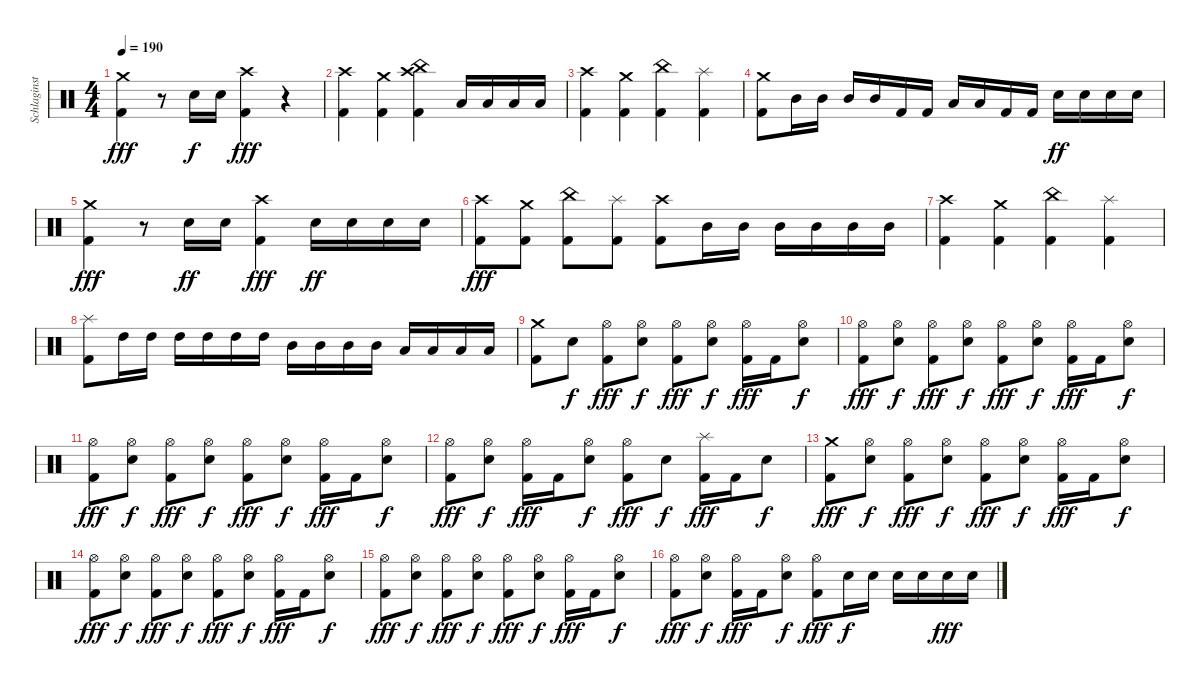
\track ("Schlaginstrumente - Auswahl" "Schlaginst") {instrument percussion}
\staff {score}
\articulation defaults
\ts (4 4)
\tempo 190
\clef neutral
\ks c
("Crash medium (hit)" "Kick (hit) 2").4{dy fff} r.8 "Snare (hit) 2".16{dy f} "Snare (hit) 2".16 ("Crash high (hit)" "Kick (hit) 2").4{dy fff} r.4 |
("Crash high (hit)" "Kick (hit) 2").4 ("Crash medium (hit)" "Kick (hit) 2").4 ("Crash high (hit)" "China (hit)" "Kick (hit) 2").4 "Low Tom (hit)".16 "Low Tom (hit)".16 "Low Tom (hit)".16 "Low Tom (hit)".16 |
("Crash high (hit)" "Kick (hit) 2").4 ("Crash medium (hit)" "Kick (hit) 2").4 ("China (hit)" "Kick (hit) 2").4 ("Splash (hit)" "Kick (hit) 2").4 |
("Crash medium (hit)" "Kick (hit) 2").8 "Mid Tom (hit)".16 "Mid Tom (hit)".16 "Mid Tom (hit)".16 "Mid Tom (hit)".16 "Kick (hit) 2".16 "Kick (hit) 2".16 "Low Tom (hit)".16 "Low Tom (hit)".16 "Kick (hit) 2".16 "Kick (hit) 2".16 "Snare (hit) 2".16{dy ff} "Snare (hit) 2".16 "Snare (hit) 2".16 "Snare (hit) 2".16 |
("Crash medium (hit)" "Kick (hit) 2").4{dy fff} r.8 "Snare (hit) 2".16{dy ff} "Snare (hit) 2".16 ("Crash high (hit)" "Kick (hit) 2").4{dy fff} "Snare (hit) 2".16{dy ff} "Snare (hit) 2".16 "Snare (hit) 2".16 "Snare (hit) 2".16 |
("Crash high (hit)" "Kick (hit) 2").8{dy fff} ("Crash medium (hit)" "Kick (hit) 2").8 ("China (hit)" "Kick (hit) 2").8 ("Splash (hit)" "Kick (hit) 2").8 ("Crash high (hit)" "Kick (hit) 2").8 "Mid Tom (hit)".16 "Mid Tom (hit)".16 "Mid Tom (hit)".16 "Mid Tom (hit)".16 "Mid Tom (hit)".16 "Mid Tom (hit)".16 |
("Crash high (hit)" "Kick (hit) 2").4 ("Crash medium (hit)" "Kick (hit) 2").4 ("China (hit)" "Kick (hit) 2").4 ("Splash (hit)" "Kick (hit) 2").4 |
("Splash (hit)" "Kick (hit) 2").8 "High Tom (hit)".16 "High Tom (hit)".16 "High Tom (hit)".16 "High Tom (hit)".16 "High Tom (hit)".16 "High Tom (hit)".16 "Mid Tom (hit)".16 "Mid Tom (hit)".16 "Mid Tom (hit)".16 "Mid Tom (hit)".16 "Low Tom (hit)".16 "Low Tom (hit)".16 "Low Tom (hit)".16 "Low Tom (hit)".16 |
("Crash medium (hit)" "Kick (hit) 2").8 "Snare (hit) 2".8{dy f} ("Hi-Hat (open)" "Kick (hit) 2").8{dy fff} ("Hi-Hat (open)" "Snare (hit) 2").8{dy f} ("Hi-Hat (open)" "Kick (hit) 2").8{dy fff} ("Hi-Hat (open)" "Snare (hit) 2").8{dy f} ("Hi-Hat (open)" "Kick (hit) 2").16{dy fff} "Kick (hit) 2".16 ("Hi-Hat (open)" "Snare (hit) 2").8{dy f} |
("Hi-Hat (open)" "Kick (hit) 2").8{dy fff} ("Hi-Hat (open)" "Snare (hit) 2").8{dy f} ("Hi-Hat (open)" "Kick (hit) 2").8{dy fff} ("Hi-Hat (open)" "Snare (hit) 2").8{dy f} ("Hi-Hat (open)" "Kick (hit) 2").8{dy fff} ("Hi-Hat (open)" "Snare (hit) 2").8{dy f} ("Hi-Hat (open)" "Kick (hit) 2").16{dy fff} "Kick (hit) 2".16 ("Hi-Hat (open)" "Snare (hit) 2").8{dy f} |
("Hi-Hat (open)" "Kick (hit) 2").8{dy fff} ("Hi-Hat (open)" "Snare (hit) 2").8{dy f} ("Hi-Hat (open)" "Kick (hit) 2").8{dy fff} ("Hi-Hat (open)" "Snare (hit) 2").8{dy f} ("Hi-Hat (open)" "Kick (hit) 2").8{dy fff} ("Hi-Hat (open)" "Snare (hit) 2").8{dy f} ("Hi-Hat (open)" "Kick (hit) 2").16{dy fff} "Kick (hit) 2".16 ("Hi-Hat (open)" "Snare (hit) 2").8{dy f} |
("Hi-Hat (open)" "Kick (hit) 2").8{dy fff} ("Hi-Hat (open)" "Snare (hit) 2").8{dy f} ("Hi-Hat (open)" "Kick (hit) 2").16{dy fff} "Kick (hit) 2".16 ("Hi-Hat (open)" "Snare (hit) 2").8{dy f} ("Hi-Hat (open)" "Kick (hit) 2").8{dy fff} "Snare (hit) 2".8{dy f} ("Splash (hit)" "Kick (hit) 2").16{dy fff} "Kick (hit) 2".16 "Snare (hit) 2".8{dy f} |
("Crash medium (hit)" "Kick (hit) 2").8{dy fff} ("Hi-Hat (open)" "Snare (hit) 2").8{dy f} ("Hi-Hat (open)" "Kick (hit) 2").8{dy fff} ("Hi-Hat (open)" "Snare (hit) 2").8{dy f} ("Hi-Hat (open)" "Kick (hit) 2").8{dy fff} ("Hi-Hat (open)" "Snare (hit) 2").8{dy f} ("Hi-Hat (open)" "Kick (hit) 2").16{dy fff} "Kick (hit) 2".16 ("Hi-Hat (open)" "Snare (hit) 2").8{dy f} |
("Hi-Hat (open)" "Kick (hit) 2").8{dy fff} ("Hi-Hat (open)" "Snare (hit) 2").8{dy f} ("Hi-Hat (open)" "Kick (hit) 2").8{dy fff} ("Hi-Hat (open)" "Snare (hit) 2").8{dy f} ("Hi-Hat (open)" "Kick (hit) 2").8{dy fff} ("Hi-Hat (open)" "Snare (hit) 2").8{dy f} ("Hi-Hat (open)" "Kick (hit) 2").16{dy fff} "Kick (hit) 2".16 ("Hi-Hat (open)" "Snare (hit) 2").8{dy f} |
("Hi-Hat (open)" "Kick (hit) 2").8{dy fff} ("Hi-Hat (open)" "Snare (hit) 2").8{dy f} ("Hi-Hat (open)" "Kick (hit) 2").8{dy fff} ("Hi-Hat (open)" "Snare (hit) 2").8{dy f} ("Hi-Hat (open)" "Kick (hit) 2").8{dy fff} ("Hi-Hat (open)" "Snare (hit) 2").8{dy f} ("Hi-Hat (open)" "Kick (hit) 2").16{dy fff} "Kick (hit) 2".16 ("Hi-Hat (open)" "Snare (hit) 2").8{dy f} |
("Hi-Hat (open)" "Kick (hit) 2").8{dy fff} ("Hi-Hat (open)" "Snare (hit) 2").8{dy f} ("Hi-Hat (open)" "Kick (hit) 2").16{dy fff} "Kick (hit) 2".16 ("Hi-Hat (open)" "Snare (hit) 2").8{dy f} ("Hi-Hat (open)" "Kick (hit) 2").8{dy fff} "Snare (hit) 2".16{dy f} "Snare (hit) 2".16 "Snare (hit) 2".16 "Snare (hit) 2".16 "Snare (hit) 2".16{dy fff} "Snare (hit) 2".16
